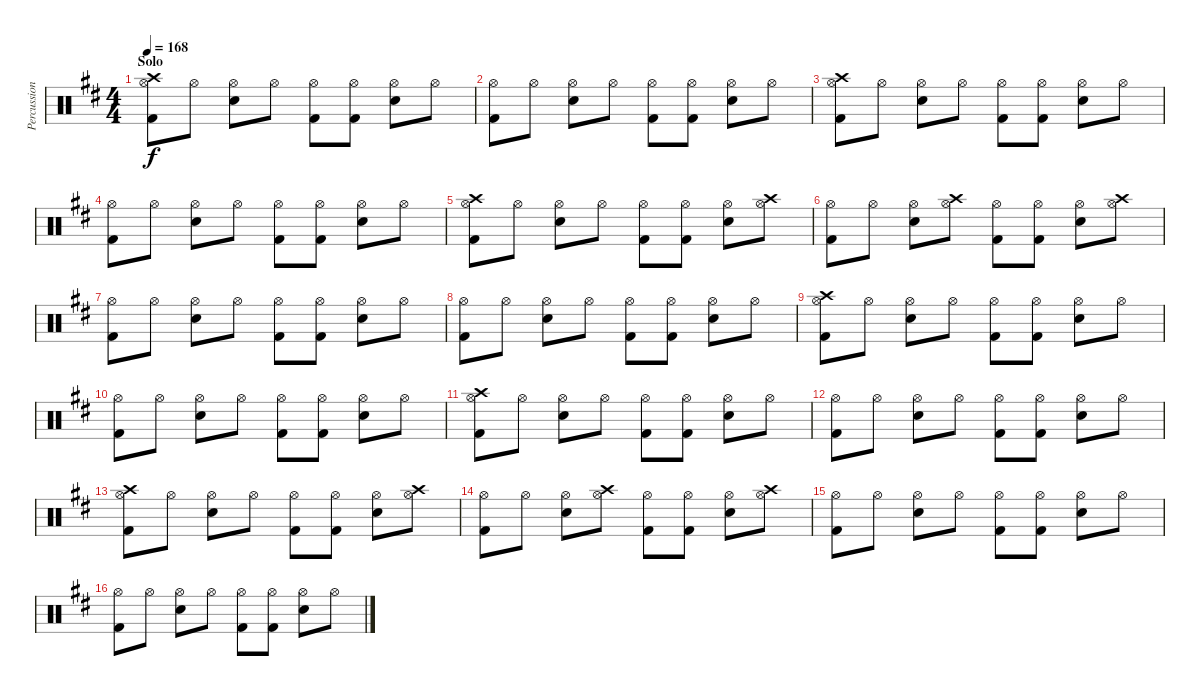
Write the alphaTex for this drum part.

\track ("Percussion" "Percussion") {instrument percussion}
\staff {score}
\articulation defaults
\ts (4 4)
\section ("" "Solo")
\tempo 168
\clef neutral
\ks d
("Crash high (hit)" "Kick (hit) 2" "Hi-Hat (open)").8{dy f} "Hi-Hat (open)".8 ("Electric Snare (hit)" "Hi-Hat (open)").8 "Hi-Hat (open)".8 ("Kick (hit) 2" "Hi-Hat (open)").8 ("Kick (hit) 2" "Hi-Hat (open)").8 ("Electric Snare (hit)" "Hi-Hat (open)").8 "Hi-Hat (open)".8 |
("Kick (hit) 2" "Hi-Hat (open)").8 "Hi-Hat (open)".8 ("Electric Snare (hit)" "Hi-Hat (open)").8 "Hi-Hat (open)".8 ("Kick (hit) 2" "Hi-Hat (open)").8 ("Kick (hit) 2" "Hi-Hat (open)").8 ("Electric Snare (hit)" "Hi-Hat (open)").8 "Hi-Hat (open)".8 |
("Crash high (hit)" "Kick (hit) 2" "Hi-Hat (open)").8 "Hi-Hat (open)".8 ("Electric Snare (hit)" "Hi-Hat (open)").8 "Hi-Hat (open)".8 ("Kick (hit) 2" "Hi-Hat (open)").8 ("Kick (hit) 2" "Hi-Hat (open)").8 ("Electric Snare (hit)" "Hi-Hat (open)").8 "Hi-Hat (open)".8 |
("Kick (hit) 2" "Hi-Hat (open)").8 "Hi-Hat (open)".8 ("Electric Snare (hit)" "Hi-Hat (open)").8 "Hi-Hat (open)".8 ("Kick (hit) 2" "Hi-Hat (open)").8 ("Kick (hit) 2" "Hi-Hat (open)").8 ("Electric Snare (hit)" "Hi-Hat (open)").8 "Hi-Hat (open)".8 |
("Crash high (hit)" "Kick (hit) 2" "Hi-Hat (open)").8 "Hi-Hat (open)".8 ("Electric Snare (hit)" "Hi-Hat (open)").8 "Hi-Hat (open)".8 ("Kick (hit) 2" "Hi-Hat (open)").8 ("Kick (hit) 2" "Hi-Hat (open)").8 ("Electric Snare (hit)" "Hi-Hat (open)").8 ("Crash high (hit)" "Hi-Hat (open)").8 |
("Kick (hit) 2" "Hi-Hat (open)").8 "Hi-Hat (open)".8 ("Electric Snare (hit)" "Hi-Hat (open)").8 ("Crash high (hit)" "Hi-Hat (open)").8 ("Kick (hit) 2" "Hi-Hat (open)").8 ("Kick (hit) 2" "Hi-Hat (open)").8 ("Electric Snare (hit)" "Hi-Hat (open)").8 ("Crash high (hit)" "Hi-Hat (open)").8 |
("Kick (hit) 2" "Hi-Hat (open)").8 "Hi-Hat (open)".8 ("Electric Snare (hit)" "Hi-Hat (open)").8 "Hi-Hat (open)".8 ("Kick (hit) 2" "Hi-Hat (open)").8 ("Kick (hit) 2" "Hi-Hat (open)").8 ("Electric Snare (hit)" "Hi-Hat (open)").8 "Hi-Hat (open)".8 |
("Kick (hit) 2" "Hi-Hat (open)").8 "Hi-Hat (open)".8 ("Electric Snare (hit)" "Hi-Hat (open)").8 "Hi-Hat (open)".8 ("Kick (hit) 2" "Hi-Hat (open)").8 ("Kick (hit) 2" "Hi-Hat (open)").8 ("Electric Snare (hit)" "Hi-Hat (open)").8 "Hi-Hat (open)".8 |
("Crash high (hit)" "Kick (hit) 2" "Hi-Hat (open)").8 "Hi-Hat (open)".8 ("Electric Snare (hit)" "Hi-Hat (open)").8 "Hi-Hat (open)".8 ("Kick (hit) 2" "Hi-Hat (open)").8 ("Kick (hit) 2" "Hi-Hat (open)").8 ("Electric Snare (hit)" "Hi-Hat (open)").8 "Hi-Hat (open)".8 |
("Kick (hit) 2" "Hi-Hat (open)").8 "Hi-Hat (open)".8 ("Electric Snare (hit)" "Hi-Hat (open)").8 "Hi-Hat (open)".8 ("Kick (hit) 2" "Hi-Hat (open)").8 ("Kick (hit) 2" "Hi-Hat (open)").8 ("Electric Snare (hit)" "Hi-Hat (open)").8 "Hi-Hat (open)".8 |
("Crash high (hit)" "Kick (hit) 2" "Hi-Hat (open)").8 "Hi-Hat (open)".8 ("Electric Snare (hit)" "Hi-Hat (open)").8 "Hi-Hat (open)".8 ("Kick (hit) 2" "Hi-Hat (open)").8 ("Kick (hit) 2" "Hi-Hat (open)").8 ("Electric Snare (hit)" "Hi-Hat (open)").8 "Hi-Hat (open)".8 |
("Kick (hit) 2" "Hi-Hat (open)").8 "Hi-Hat (open)".8 ("Electric Snare (hit)" "Hi-Hat (open)").8 "Hi-Hat (open)".8 ("Kick (hit) 2" "Hi-Hat (open)").8 ("Kick (hit) 2" "Hi-Hat (open)").8 ("Electric Snare (hit)" "Hi-Hat (open)").8 "Hi-Hat (open)".8 |
("Crash high (hit)" "Kick (hit) 2" "Hi-Hat (open)").8 "Hi-Hat (open)".8 ("Electric Snare (hit)" "Hi-Hat (open)").8 "Hi-Hat (open)".8 ("Kick (hit) 2" "Hi-Hat (open)").8 ("Kick (hit) 2" "Hi-Hat (open)").8 ("Electric Snare (hit)" "Hi-Hat (open)").8 ("Crash high (hit)" "Hi-Hat (open)").8 |
("Kick (hit) 2" "Hi-Hat (open)").8 "Hi-Hat (open)".8 ("Electric Snare (hit)" "Hi-Hat (open)").8 ("Crash high (hit)" "Hi-Hat (open)").8 ("Kick (hit) 2" "Hi-Hat (open)").8 ("Kick (hit) 2" "Hi-Hat (open)").8 ("Electric Snare (hit)" "Hi-Hat (open)").8 ("Crash high (hit)" "Hi-Hat (open)").8 |
("Kick (hit) 2" "Hi-Hat (open)").8 "Hi-Hat (open)".8 ("Electric Snare (hit)" "Hi-Hat (open)").8 "Hi-Hat (open)".8 ("Kick (hit) 2" "Hi-Hat (open)").8 ("Kick (hit) 2" "Hi-Hat (open)").8 ("Electric Snare (hit)" "Hi-Hat (open)").8 "Hi-Hat (open)".8 |
("Kick (hit) 2" "Hi-Hat (open)").8 "Hi-Hat (open)".8 ("Electric Snare (hit)" "Hi-Hat (open)").8 "Hi-Hat (open)".8 ("Kick (hit) 2" "Hi-Hat (open)").8 ("Kick (hit) 2" "Hi-Hat (open)").8 ("Electric Snare (hit)" "Hi-Hat (open)").8 "Hi-Hat (open)".8
